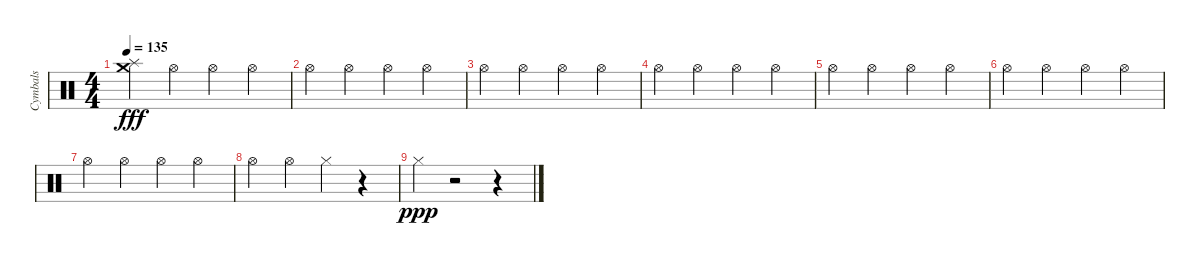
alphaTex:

\track ("Cymbals" "Cymbals") {instrument percussion}
\staff {score}
\articulation defaults
\ts (4 4)
\tempo 135
\clef neutral
\ks c
("Crash medium (hit)" "Splash (hit)").4{dy fff} "Hi-Hat (open)".4 "Hi-Hat (open)".4 "Hi-Hat (open)".4 |
"Hi-Hat (open)".4 "Hi-Hat (open)".4 "Hi-Hat (open)".4 "Hi-Hat (open)".4 |
"Hi-Hat (open)".4 "Hi-Hat (open)".4 "Hi-Hat (open)".4 "Hi-Hat (open)".4 |
"Hi-Hat (open)".4 "Hi-Hat (open)".4 "Hi-Hat (open)".4 "Hi-Hat (open)".4 |
"Hi-Hat (open)".4 "Hi-Hat (open)".4 "Hi-Hat (open)".4 "Hi-Hat (open)".4 |
"Hi-Hat (open)".4 "Hi-Hat (open)".4 "Hi-Hat (open)".4 "Hi-Hat (open)".4 |
"Hi-Hat (open)".4 "Hi-Hat (open)".4 "Hi-Hat (open)".4 "Hi-Hat (open)".4 |
"Hi-Hat (open)".4 "Hi-Hat (open)".4 "Hi-Hat (closed)".4 r.4 |
"Hi-Hat (closed)".4{dy ppp} r.2 r.4
